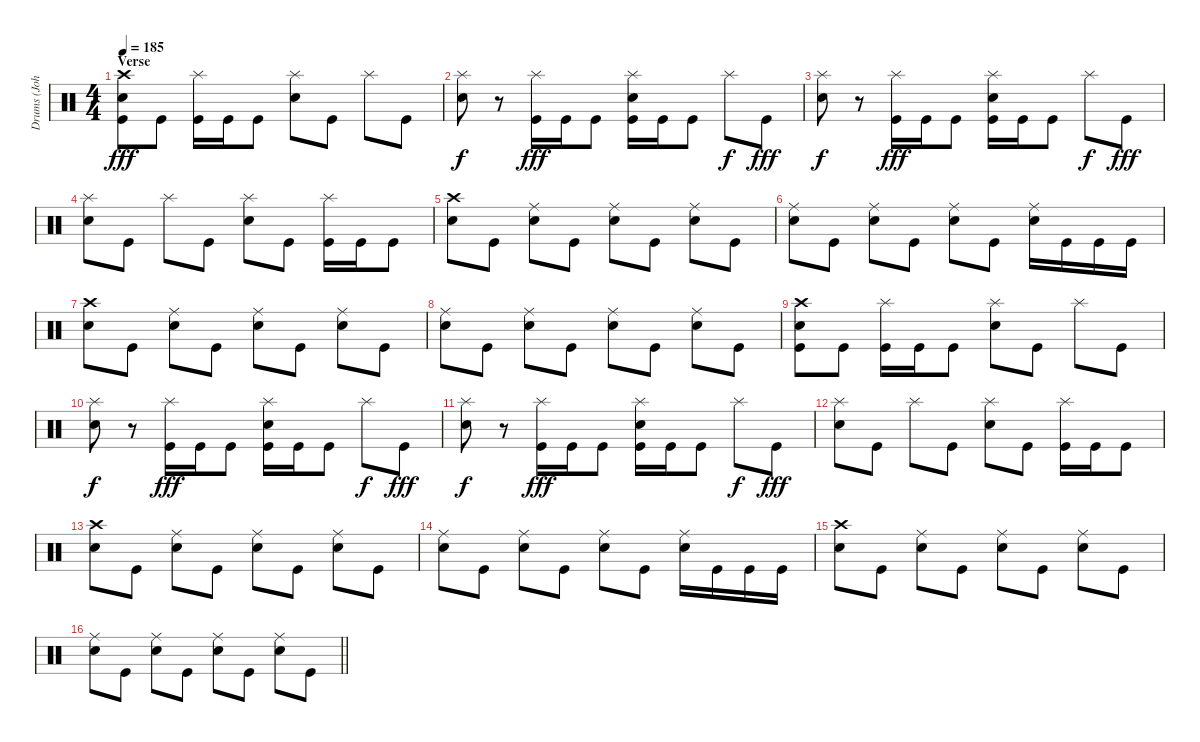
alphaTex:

\track ("Drums (John Bengtsson)" "Drums (Joh") {instrument percussion}
\staff {score}
\articulation defaults
\ts (4 4)
\section ("" "Verse")
\tempo 185
\clef neutral
\ks c
("Crash high (hit)" "Electric Snare (hit)" "Kick (hit)").8{dy fff} "Kick (hit)".8 ("Splash (hit)" "Kick (hit)").16 "Kick (hit)".16 "Kick (hit)".8 ("Splash (hit)" "Electric Snare (hit)").8 "Kick (hit)".8 "Splash (hit)".8 "Kick (hit)".8 |
("Splash (hit)" "Electric Snare (hit)").8{dy f} r.8 ("Splash (hit)" "Kick (hit)").16{dy fff} "Kick (hit)".16 "Kick (hit)".8 ("Splash (hit)" "Electric Snare (hit)" "Kick (hit)").16 "Kick (hit)".16 "Kick (hit)".8 "Splash (hit)".8{dy f} "Kick (hit)".8{dy fff} |
("Splash (hit)" "Electric Snare (hit)").8{dy f} r.8 ("Splash (hit)" "Kick (hit)").16{dy fff} "Kick (hit)".16 "Kick (hit)".8 ("Splash (hit)" "Electric Snare (hit)" "Kick (hit)").16 "Kick (hit)".16 "Kick (hit)".8 "Splash (hit)".8{dy f} "Kick (hit)".8{dy fff} |
("Splash (hit)" "Electric Snare (hit)").8 "Kick (hit)".8 "Splash (hit)".8 "Kick (hit)".8 ("Splash (hit)" "Electric Snare (hit)").8 "Kick (hit)".8 ("Splash (hit)" "Kick (hit)").16 "Kick (hit)".16 "Kick (hit)".8 |
("Crash high (hit)" "Electric Snare (hit)").8 "Kick (hit)".8 ("Ride (middle)" "Electric Snare (hit)").8 "Kick (hit)".8 ("Ride (middle)" "Electric Snare (hit)").8 "Kick (hit)".8 ("Ride (middle)" "Electric Snare (hit)").8 "Kick (hit)".8 |
("Ride (middle)" "Electric Snare (hit)").8 "Kick (hit)".8 ("Ride (middle)" "Electric Snare (hit)").8 "Kick (hit)".8 ("Ride (middle)" "Electric Snare (hit)").8 "Kick (hit)".8 ("Ride (middle)" "Electric Snare (hit)").16 "Kick (hit)".16 "Kick (hit)".16 "Kick (hit)".16 |
("Crash high (hit)" "Electric Snare (hit)").8 "Kick (hit)".8 ("Ride (middle)" "Electric Snare (hit)").8 "Kick (hit)".8 ("Ride (middle)" "Electric Snare (hit)").8 "Kick (hit)".8 ("Ride (middle)" "Electric Snare (hit)").8 "Kick (hit)".8 |
("Ride (middle)" "Electric Snare (hit)").8 "Kick (hit)".8 ("Ride (middle)" "Electric Snare (hit)").8 "Kick (hit)".8 ("Ride (middle)" "Electric Snare (hit)").8 "Kick (hit)".8 ("Ride (middle)" "Electric Snare (hit)").8 "Kick (hit)".8 |
("Crash high (hit)" "Electric Snare (hit)" "Kick (hit)").8 "Kick (hit)".8 ("Splash (hit)" "Kick (hit)").16 "Kick (hit)".16 "Kick (hit)".8 ("Splash (hit)" "Electric Snare (hit)").8 "Kick (hit)".8 "Splash (hit)".8 "Kick (hit)".8 |
("Splash (hit)" "Electric Snare (hit)").8{dy f} r.8 ("Splash (hit)" "Kick (hit)").16{dy fff} "Kick (hit)".16 "Kick (hit)".8 ("Splash (hit)" "Electric Snare (hit)" "Kick (hit)").16 "Kick (hit)".16 "Kick (hit)".8 "Splash (hit)".8{dy f} "Kick (hit)".8{dy fff} |
("Splash (hit)" "Electric Snare (hit)").8{dy f} r.8 ("Splash (hit)" "Kick (hit)").16{dy fff} "Kick (hit)".16 "Kick (hit)".8 ("Splash (hit)" "Electric Snare (hit)" "Kick (hit)").16 "Kick (hit)".16 "Kick (hit)".8 "Splash (hit)".8{dy f} "Kick (hit)".8{dy fff} |
("Splash (hit)" "Electric Snare (hit)").8 "Kick (hit)".8 "Splash (hit)".8 "Kick (hit)".8 ("Splash (hit)" "Electric Snare (hit)").8 "Kick (hit)".8 ("Splash (hit)" "Kick (hit)").16 "Kick (hit)".16 "Kick (hit)".8 |
("Crash high (hit)" "Electric Snare (hit)").8 "Kick (hit)".8 ("Ride (middle)" "Electric Snare (hit)").8 "Kick (hit)".8 ("Ride (middle)" "Electric Snare (hit)").8 "Kick (hit)".8 ("Ride (middle)" "Electric Snare (hit)").8 "Kick (hit)".8 |
("Ride (middle)" "Electric Snare (hit)").8 "Kick (hit)".8 ("Ride (middle)" "Electric Snare (hit)").8 "Kick (hit)".8 ("Ride (middle)" "Electric Snare (hit)").8 "Kick (hit)".8 ("Ride (middle)" "Electric Snare (hit)").16 "Kick (hit)".16 "Kick (hit)".16 "Kick (hit)".16 |
("Crash high (hit)" "Electric Snare (hit)").8 "Kick (hit)".8 ("Ride (middle)" "Electric Snare (hit)").8 "Kick (hit)".8 ("Ride (middle)" "Electric Snare (hit)").8 "Kick (hit)".8 ("Ride (middle)" "Electric Snare (hit)").8 "Kick (hit)".8 |
\barLineRight lightlight
("Ride (middle)" "Electric Snare (hit)").8 "Kick (hit)".8 ("Ride (middle)" "Electric Snare (hit)").8 "Kick (hit)".8 ("Ride (middle)" "Electric Snare (hit)").8 "Kick (hit)".8 ("Ride (middle)" "Electric Snare (hit)").8 "Kick (hit)".8
